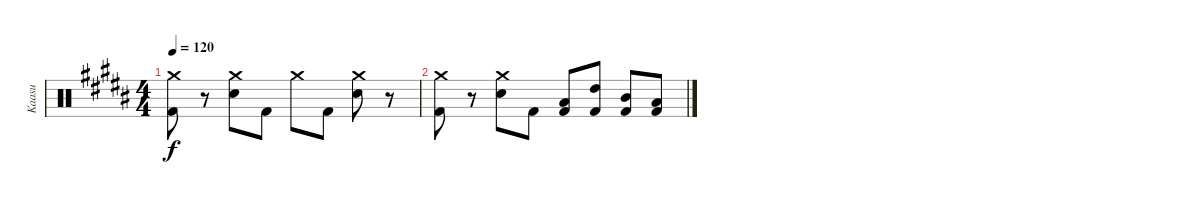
\track ("Kaasu" "Kaasu") {instrument percussion}
\staff {score}
\articulation defaults
\ts (4 4)
\tempo 120
\clef neutral
\ks b
("Crash medium (hit)" "Kick (hit) 2").8{dy f volume 13} r.8 ("Crash medium (hit)" "Snare (hit) 2").8 "Kick (hit) 2".8 "Crash medium (hit)".8 "Kick (hit) 2".8 ("Crash medium (hit)" "Snare (hit) 2").8 r.8 |
("Crash medium (hit)" "Kick (hit) 2").8 r.8 ("Crash medium (hit)" "Snare (hit) 2").8 "Kick (hit) 2".8 ("Low Tom (hit)" "Kick (hit) 2").8 ("High Tom (hit)" "Kick (hit) 2").8 ("Mid Tom (hit)" "Kick (hit) 2").8 ("Low Tom (hit)" "Kick (hit) 2").8
